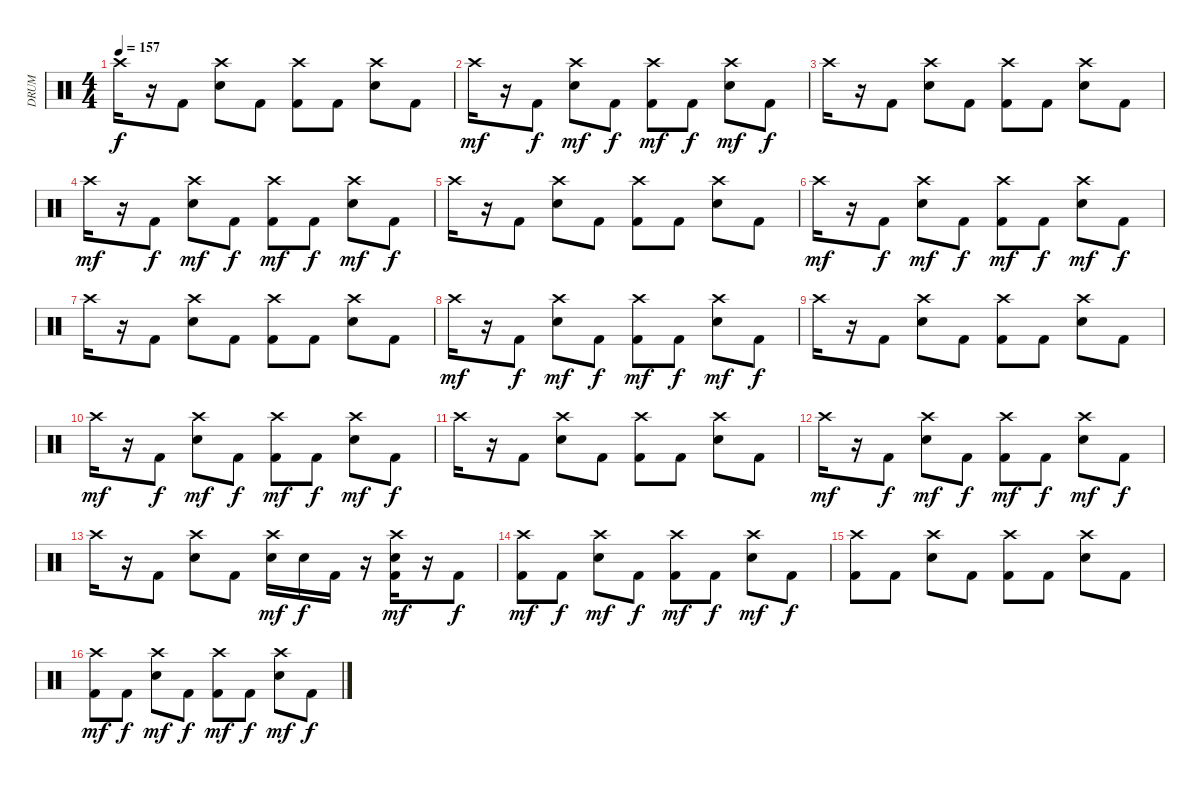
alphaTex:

\track ("DRUM" "DRUM") {instrument percussion}
\staff {score}
\articulation defaults
\ts (4 4)
\tempo 157
\clef neutral
\ks c "Crash high (hit)".16{dy f}
r.16 "Kick (hit) 2".8 ("Crash high (hit)" "Electric Snare (hit)").8 "Kick (hit) 2".8 ("Crash high (hit)" "Kick (hit) 2").8 "Kick (hit) 2".8 ("Electric Snare (hit)" "Crash high (hit)").8 "Kick (hit) 2".8 |
"Crash high (hit)".16{dy mf} r.16 "Kick (hit) 2".8{dy f} ("Crash high (hit)" "Electric Snare (hit)").8{dy mf} "Kick (hit) 2".8{dy f} ("Kick (hit) 2" "Crash high (hit)").8{dy mf} "Kick (hit) 2".8{dy f} ("Crash high (hit)" "Electric Snare (hit)").8{dy mf} "Kick (hit) 2".8{dy f} |
"Crash high (hit)".16 r.16 "Kick (hit) 2".8 ("Crash high (hit)" "Electric Snare (hit)").8 "Kick (hit) 2".8 ("Crash high (hit)" "Kick (hit) 2").8 "Kick (hit) 2".8 ("Electric Snare (hit)" "Crash high (hit)").8 "Kick (hit) 2".8 |
"Crash high (hit)".16{dy mf} r.16 "Kick (hit) 2".8{dy f} ("Crash high (hit)" "Electric Snare (hit)").8{dy mf} "Kick (hit) 2".8{dy f} ("Kick (hit) 2" "Crash high (hit)").8{dy mf} "Kick (hit) 2".8{dy f} ("Crash high (hit)" "Electric Snare (hit)").8{dy mf} "Kick (hit) 2".8{dy f} |
"Crash high (hit)".16 r.16 "Kick (hit) 2".8 ("Crash high (hit)" "Electric Snare (hit)").8 "Kick (hit) 2".8 ("Crash high (hit)" "Kick (hit) 2").8 "Kick (hit) 2".8 ("Electric Snare (hit)" "Crash high (hit)").8 "Kick (hit) 2".8 |
"Crash high (hit)".16{dy mf} r.16 "Kick (hit) 2".8{dy f} ("Crash high (hit)" "Electric Snare (hit)").8{dy mf} "Kick (hit) 2".8{dy f} ("Kick (hit) 2" "Crash high (hit)").8{dy mf} "Kick (hit) 2".8{dy f} ("Crash high (hit)" "Electric Snare (hit)").8{dy mf} "Kick (hit) 2".8{dy f} |
"Crash high (hit)".16 r.16 "Kick (hit) 2".8 ("Crash high (hit)" "Electric Snare (hit)").8 "Kick (hit) 2".8 ("Crash high (hit)" "Kick (hit) 2").8 "Kick (hit) 2".8 ("Electric Snare (hit)" "Crash high (hit)").8 "Kick (hit) 2".8 |
"Crash high (hit)".16{dy mf} r.16 "Kick (hit) 2".8{dy f} ("Crash high (hit)" "Electric Snare (hit)").8{dy mf} "Kick (hit) 2".8{dy f} ("Kick (hit) 2" "Crash high (hit)").8{dy mf} "Kick (hit) 2".8{dy f} ("Crash high (hit)" "Electric Snare (hit)").8{dy mf} "Kick (hit) 2".8{dy f} |
"Crash high (hit)".16 r.16 "Kick (hit) 2".8 ("Crash high (hit)" "Electric Snare (hit)").8 "Kick (hit) 2".8 ("Crash high (hit)" "Kick (hit) 2").8 "Kick (hit) 2".8 ("Electric Snare (hit)" "Crash high (hit)").8 "Kick (hit) 2".8 |
"Crash high (hit)".16{dy mf} r.16 "Kick (hit) 2".8{dy f} ("Crash high (hit)" "Electric Snare (hit)").8{dy mf} "Kick (hit) 2".8{dy f} ("Kick (hit) 2" "Crash high (hit)").8{dy mf} "Kick (hit) 2".8{dy f} ("Crash high (hit)" "Electric Snare (hit)").8{dy mf} "Kick (hit) 2".8{dy f} |
"Crash high (hit)".16 r.16 "Kick (hit) 2".8 ("Crash high (hit)" "Electric Snare (hit)").8 "Kick (hit) 2".8 ("Crash high (hit)" "Kick (hit) 2").8 "Kick (hit) 2".8 ("Electric Snare (hit)" "Crash high (hit)").8 "Kick (hit) 2".8 |
"Crash high (hit)".16{dy mf} r.16 "Kick (hit) 2".8{dy f} ("Crash high (hit)" "Electric Snare (hit)").8{dy mf} "Kick (hit) 2".8{dy f} ("Kick (hit) 2" "Crash high (hit)").8{dy mf} "Kick (hit) 2".8{dy f} ("Crash high (hit)" "Electric Snare (hit)").8{dy mf} "Kick (hit) 2".8{dy f} |
"Crash high (hit)".16 r.16 "Kick (hit) 2".8 ("Crash high (hit)" "Electric Snare (hit)").8 "Kick (hit) 2".8 ("Electric Snare (hit)" "Crash high (hit)").16{dy mf} "Electric Snare (hit)".16{dy f} "Kick (hit) 2".16 r.16 ("Electric Snare (hit)" "Kick (hit) 2" "Crash high (hit)").16{dy mf} r.16 "Kick (hit) 2".8{dy f} |
("Kick (hit) 2" "Crash high (hit)").8{dy mf} "Kick (hit) 2".8{dy f} ("Crash high (hit)" "Electric Snare (hit)").8{dy mf} "Kick (hit) 2".8{dy f} ("Kick (hit) 2" "Crash high (hit)").8{dy mf} "Kick (hit) 2".8{dy f} ("Crash high (hit)" "Electric Snare (hit)").8{dy mf} "Kick (hit) 2".8{dy f} |
("Kick (hit) 2" "Crash high (hit)").8 "Kick (hit) 2".8 ("Crash high (hit)" "Electric Snare (hit)").8 "Kick (hit) 2".8 ("Kick (hit) 2" "Crash high (hit)").8 "Kick (hit) 2".8 ("Electric Snare (hit)" "Crash high (hit)").8 "Kick (hit) 2".8 |
("Kick (hit) 2" "Crash high (hit)").8{dy mf} "Kick (hit) 2".8{dy f} ("Crash high (hit)" "Electric Snare (hit)").8{dy mf} "Kick (hit) 2".8{dy f} ("Kick (hit) 2" "Crash high (hit)").8{dy mf} "Kick (hit) 2".8{dy f} ("Crash high (hit)" "Electric Snare (hit)").8{dy mf} "Kick (hit) 2".8{dy f}
